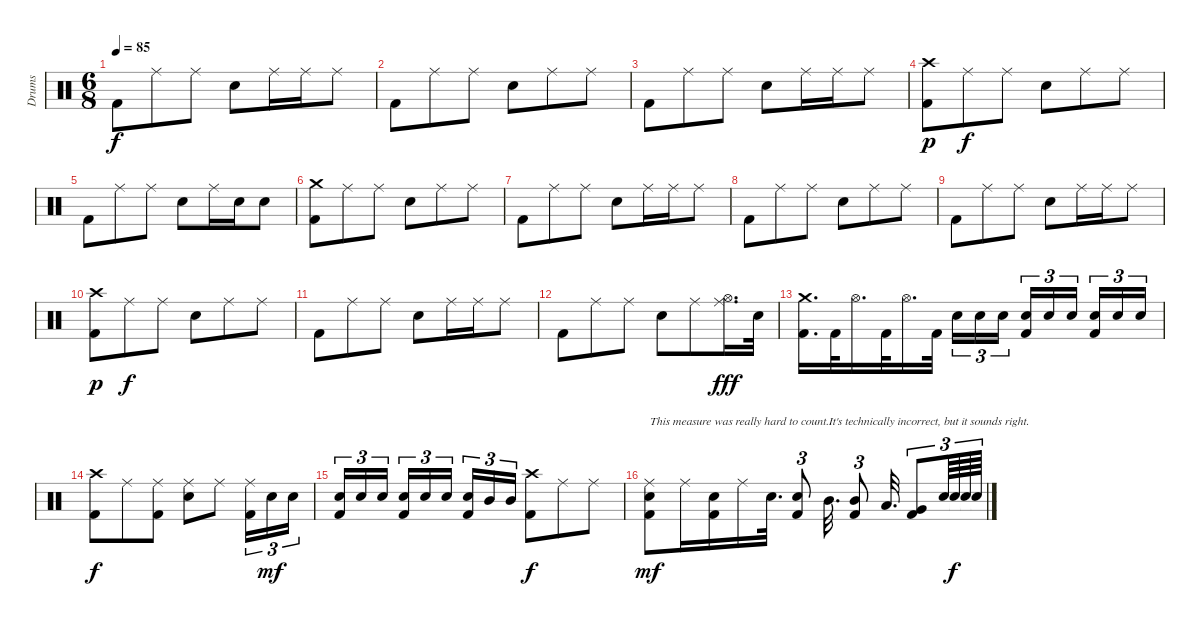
\track ("Drums" "Drums") {instrument percussion}
\staff {score}
\articulation defaults
\ts (6 8)
\tempo 85
\clef neutral
\ks c "Kick (hit) 2".8{dy f} "Ride (middle)".8 "Ride (middle)".8 "Snare (hit) 2".8 "Ride (middle)".16 "Ride (middle)".16 "Ride (middle)".8
|
"Kick (hit) 2".8 "Ride (middle)".8 "Ride (middle)".8 "Snare (hit) 2".8 "Ride (middle)".8 "Ride (middle)".8 |
"Kick (hit) 2".8 "Ride (middle)".8 "Ride (middle)".8 "Snare (hit) 2".8 "Ride (middle)".16 "Ride (middle)".16 "Ride (middle)".8 |
("Crash high (hit)" "Kick (hit) 2").8{dy p} "Ride (middle)".8{dy f} "Ride (middle)".8 "Snare (hit) 2".8 "Ride (middle)".8 "Ride (middle)".8 |
"Kick (hit) 2".8 "Ride (middle)".8 "Ride (middle)".8 "Snare (hit) 2".8 "Ride (middle)".16 "Snare (hit) 2".16 "Snare (hit) 2".8 |
("Crash medium (hit)" "Kick (hit) 2").8 "Ride (middle)".8 "Ride (middle)".8 "Snare (hit) 2".8 "Ride (middle)".8 "Ride (middle)".8 |
"Kick (hit) 2".8 "Ride (middle)".8 "Ride (middle)".8 "Snare (hit) 2".8 "Ride (middle)".16 "Ride (middle)".16 "Ride (middle)".8 |
"Kick (hit) 2".8 "Ride (middle)".8 "Ride (middle)".8 "Snare (hit) 2".8 "Ride (middle)".8 "Ride (middle)".8 |
"Kick (hit) 2".8 "Ride (middle)".8 "Ride (middle)".8 "Snare (hit) 2".8 "Ride (middle)".16 "Ride (middle)".16 "Ride (middle)".8 |
("Crash high (hit)" "Kick (hit) 2").8{dy p} "Ride (middle)".8{dy f} "Ride (middle)".8 "Snare (hit) 2".8 "Ride (middle)".8 "Ride (middle)".8 |
"Kick (hit) 2".8 "Ride (middle)".8 "Ride (middle)".8 "Snare (hit) 2".8 "Ride (middle)".16 "Ride (middle)".16 "Ride (middle)".8 |
"Kick (hit) 2".8 "Ride (middle)".8 "Ride (middle)".8 "Snare (hit) 2".8 "Ride (middle)".8 ("Ride (middle)" "Hi-Hat (open)").16{d dy fff} "Snare (hit) 2".32 |
("Crash medium (hit)" "Kick (hit) 2").16{d} "Kick (hit) 2".32 "Hi-Hat (open)".16{d} "Kick (hit) 2".32 "Hi-Hat (open)".16{d} "Kick (hit) 2".32 "Snare (hit) 2".16{tu (3 2)} "Snare (hit) 2".16{tu (3 2)} "Snare (hit) 2".16{tu (3 2) beam splitsecondary} ("Snare (hit) 2" "Kick (hit) 2").16{tu (3 2)} "Snare (hit) 2".16{tu (3 2)} "Snare (hit) 2".16{tu (3 2) beam splitsecondary} ("Snare (hit) 2" "Kick (hit) 2").16{tu (3 2)} "Snare (hit) 2".16{tu (3 2)} "Snare (hit) 2".16{tu (3 2)} |
("Crash high (hit)" "Kick (hit) 2").8{dy f} "Ride (middle)".8 ("Ride (middle)" "Kick (hit) 2").8 ("Ride (middle)" "Snare (hit) 2").8 "Ride (middle)".8 ("Ride (middle)" "Kick (hit) 2").16{tu (3 2)} "Snare (hit) 2".16{tu (3 2) dy mf} "Snare (hit) 2".16{tu (3 2)} |
("Snare (hit) 2" "Kick (hit) 2").16{tu (3 2)} "Snare (hit) 2".16{tu (3 2)} "Snare (hit) 2".16{tu (3 2) beam splitsecondary} ("Snare (hit) 2" "Kick (hit) 2").16{tu (3 2)} "Snare (hit) 2".16{tu (3 2)} "Snare (hit) 2".16{tu (3 2) beam splitsecondary} ("Snare (hit) 2" "Kick (hit) 2").16{tu (3 2)} "Mid Tom (hit)".16{tu (3 2)} "Mid Tom (hit)".16{tu (3 2)} ("Crash high (hit)" "Kick (hit) 2").8{dy f} "Ride (middle)".8 "Ride (middle)".8 |
("Ride (middle)" "Snare (hit) 2" "Kick (hit) 2").8{txt "This measure was really hard to count." dy mf} "Ride (middle)".16 ("Snare (hit) 2" "Kick (hit) 2").16 "Ride (middle)".16 "Snare (hit) 2".32{d} ("Snare (hit) 2" "Kick (hit) 2").8{tu (3 2)} "Mid Tom (hit)".32{d txt "It's technically incorrect, but it sounds right."} ("Mid Tom (hit)" "Kick (hit) 2").8{tu (3 2)} "Low Tom (hit)".32{d} ("Very Low Tom (hit)" "Kick (hit) 2").8{tu (3 2)} "Snare (hit) 2".64{tu (3 2)} "Snare (hit) 2"{t}.64{tu (3 2) dy f} "Snare (hit) 2"{t}.64{tu (3 2)} "Snare (hit) 2"{t}.64{tu (3 2)}
